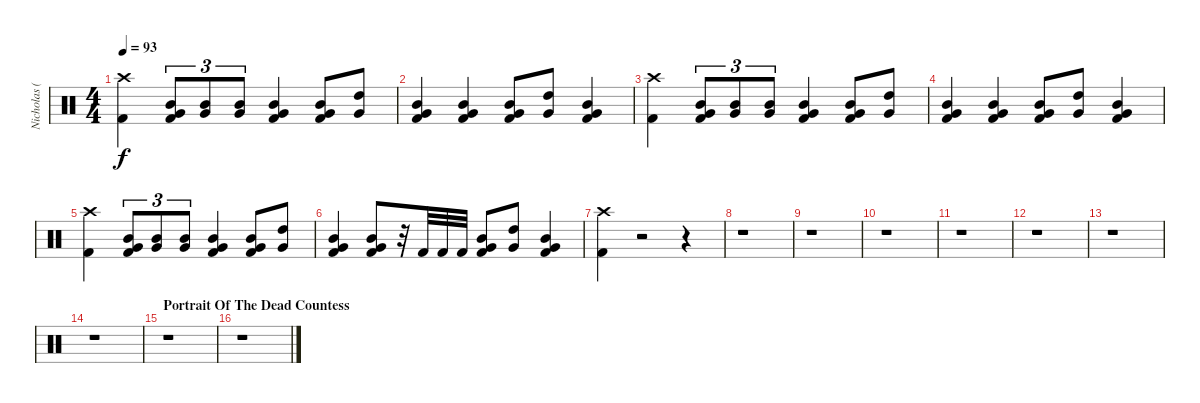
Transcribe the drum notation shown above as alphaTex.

\track ("Nicholas (Drums)" "Nicholas (") {instrument percussion}
\staff {score}
\articulation defaults
\ts (4 4)
\tempo 93
\clef neutral
\ks c
("Crash high (hit)" "Kick (hit) 2").4{dy f} ("Mid Tom (hit)" "Very Low Tom (hit)" "Kick (hit) 2").8{tu (3 2)} ("Mid Tom (hit)" "Very Low Tom (hit)").8{tu (3 2)} ("Mid Tom (hit)" "Very Low Tom (hit)").8{tu (3 2)} ("Mid Tom (hit)" "Very Low Tom (hit)" "Kick (hit) 2").4 ("Mid Tom (hit)" "Very Low Tom (hit)" "Kick (hit) 2").8 ("High Tom (hit)" "Very Low Tom (hit)").8 |
("Mid Tom (hit)" "Very Low Tom (hit)" "Kick (hit) 2").4 ("Mid Tom (hit)" "Very Low Tom (hit)" "Kick (hit) 2").4 ("Mid Tom (hit)" "Very Low Tom (hit)" "Kick (hit) 2").8 ("High Tom (hit)" "Very Low Tom (hit)").8 ("Mid Tom (hit)" "Very Low Tom (hit)" "Kick (hit) 2").4 |
("Crash high (hit)" "Kick (hit) 2").4 ("Mid Tom (hit)" "Very Low Tom (hit)" "Kick (hit) 2").8{tu (3 2)} ("Mid Tom (hit)" "Very Low Tom (hit)").8{tu (3 2)} ("Mid Tom (hit)" "Very Low Tom (hit)").8{tu (3 2)} ("Mid Tom (hit)" "Very Low Tom (hit)" "Kick (hit) 2").4 ("Mid Tom (hit)" "Very Low Tom (hit)" "Kick (hit) 2").8 ("High Tom (hit)" "Very Low Tom (hit)").8 |
("Mid Tom (hit)" "Very Low Tom (hit)" "Kick (hit) 2").4 ("Mid Tom (hit)" "Very Low Tom (hit)" "Kick (hit) 2").4 ("Mid Tom (hit)" "Very Low Tom (hit)" "Kick (hit) 2").8 ("High Tom (hit)" "Very Low Tom (hit)").8 ("Mid Tom (hit)" "Very Low Tom (hit)" "Kick (hit) 2").4 |
("Crash high (hit)" "Kick (hit) 2").4 ("Mid Tom (hit)" "Very Low Tom (hit)" "Kick (hit) 2").8{tu (3 2)} ("Mid Tom (hit)" "Very Low Tom (hit)").8{tu (3 2)} ("Mid Tom (hit)" "Very Low Tom (hit)").8{tu (3 2)} ("Mid Tom (hit)" "Very Low Tom (hit)" "Kick (hit) 2").4 ("Mid Tom (hit)" "Very Low Tom (hit)" "Kick (hit) 2").8 ("High Tom (hit)" "Very Low Tom (hit)").8 |
("Mid Tom (hit)" "Very Low Tom (hit)" "Kick (hit) 2").4 ("Mid Tom (hit)" "Very Low Tom (hit)" "Kick (hit) 2").8 r.32 "Kick (hit) 2".32 "Kick (hit) 2".32 "Kick (hit) 2".32 ("Mid Tom (hit)" "Very Low Tom (hit)" "Kick (hit) 2").8 ("High Tom (hit)" "Very Low Tom (hit)").8 ("Mid Tom (hit)" "Very Low Tom (hit)" "Kick (hit) 2").4 |
("Crash high (hit)" "Kick (hit) 2").4 r.2 r.4 |
r.1 |
r.1 |
r.1 |
r.1 |
r.1 |
r.1 |
r.1 |
\section ("" "Portrait Of The Dead Countess")
r.1 |
r.1
